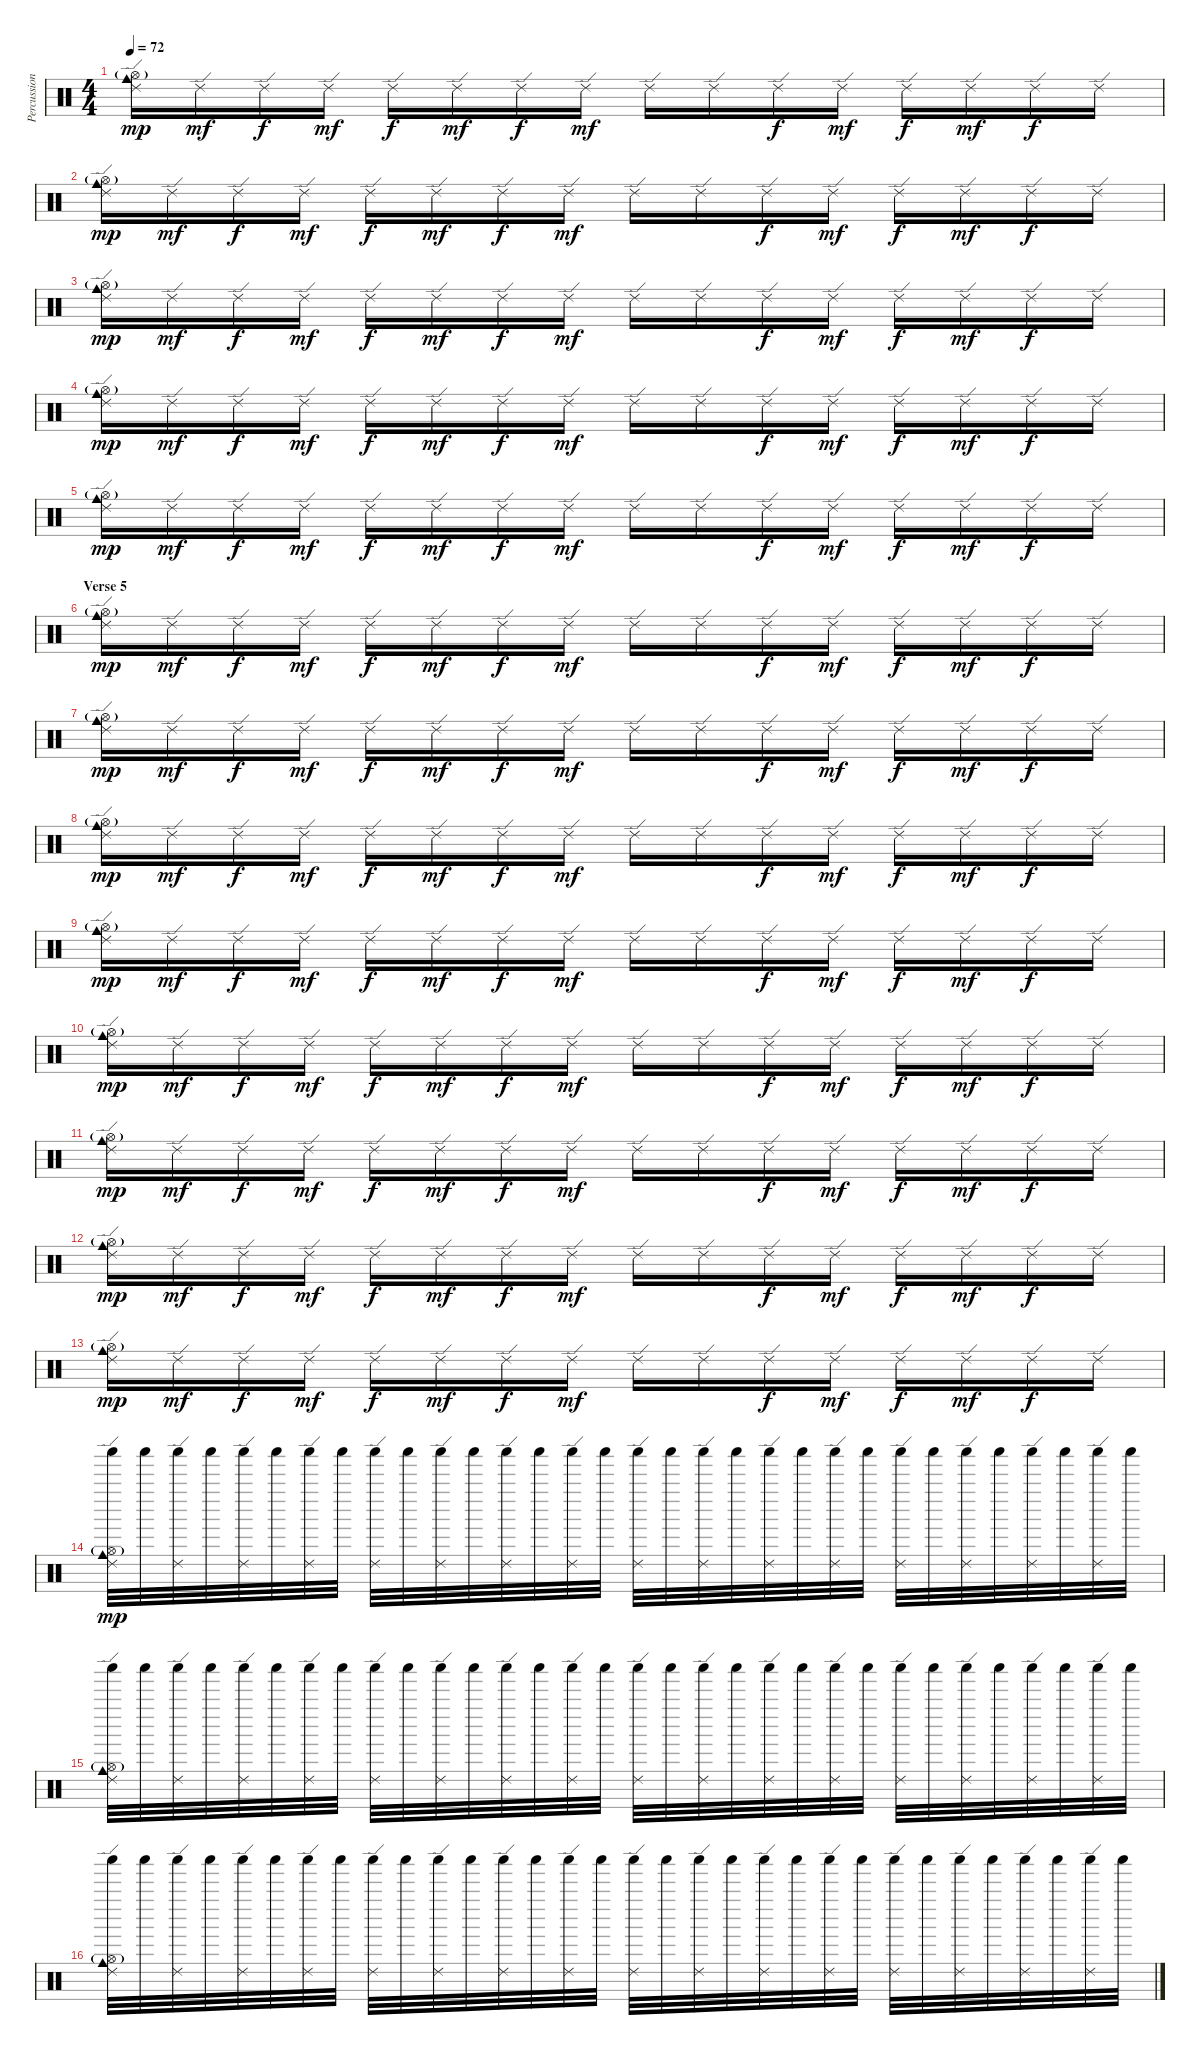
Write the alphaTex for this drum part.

\track ("Percussion" "Percussion") {instrument percussion}
\staff {score}
\articulation defaults
\ts (4 4)
\tempo 72
\clef neutral
\ks c
("Ride (edge) 2" "Hi-Hat (open)"{g} "Cowbell medium (hit)").16{dy mp} "Ride (edge) 2".16{dy mf} "Ride (edge) 2".16{dy f} "Ride (edge) 2".16{dy mf} "Ride (edge) 2".16{dy f} "Ride (edge) 2".16{dy mf} "Ride (edge) 2".16{dy f} "Ride (edge) 2".16{dy mf} "Ride (edge) 2".16 "Ride (edge) 2".16 "Ride (edge) 2".16{dy f} "Ride (edge) 2".16{dy mf} "Ride (edge) 2".16{dy f} "Ride (edge) 2".16{dy mf} "Ride (edge) 2".16{dy f} "Ride (edge) 2".16 |
("Ride (edge) 2" "Hi-Hat (open)"{g} "Cowbell medium (hit)").16{dy mp} "Ride (edge) 2".16{dy mf} "Ride (edge) 2".16{dy f} "Ride (edge) 2".16{dy mf} "Ride (edge) 2".16{dy f} "Ride (edge) 2".16{dy mf} "Ride (edge) 2".16{dy f} "Ride (edge) 2".16{dy mf} "Ride (edge) 2".16 "Ride (edge) 2".16 "Ride (edge) 2".16{dy f} "Ride (edge) 2".16{dy mf} "Ride (edge) 2".16{dy f} "Ride (edge) 2".16{dy mf} "Ride (edge) 2".16{dy f} "Ride (edge) 2".16 |
("Ride (edge) 2" "Hi-Hat (open)"{g} "Cowbell medium (hit)").16{dy mp} "Ride (edge) 2".16{dy mf} "Ride (edge) 2".16{dy f} "Ride (edge) 2".16{dy mf} "Ride (edge) 2".16{dy f} "Ride (edge) 2".16{dy mf} "Ride (edge) 2".16{dy f} "Ride (edge) 2".16{dy mf} "Ride (edge) 2".16 "Ride (edge) 2".16 "Ride (edge) 2".16{dy f} "Ride (edge) 2".16{dy mf} "Ride (edge) 2".16{dy f} "Ride (edge) 2".16{dy mf} "Ride (edge) 2".16{dy f} "Ride (edge) 2".16 |
("Ride (edge) 2" "Hi-Hat (open)"{g} "Cowbell medium (hit)").16{dy mp} "Ride (edge) 2".16{dy mf} "Ride (edge) 2".16{dy f} "Ride (edge) 2".16{dy mf} "Ride (edge) 2".16{dy f} "Ride (edge) 2".16{dy mf} "Ride (edge) 2".16{dy f} "Ride (edge) 2".16{dy mf} "Ride (edge) 2".16 "Ride (edge) 2".16 "Ride (edge) 2".16{dy f} "Ride (edge) 2".16{dy mf} "Ride (edge) 2".16{dy f} "Ride (edge) 2".16{dy mf} "Ride (edge) 2".16{dy f} "Ride (edge) 2".16 |
("Ride (edge) 2" "Hi-Hat (open)"{g} "Cowbell medium (hit)").16{dy mp} "Ride (edge) 2".16{dy mf} "Ride (edge) 2".16{dy f} "Ride (edge) 2".16{dy mf} "Ride (edge) 2".16{dy f} "Ride (edge) 2".16{dy mf} "Ride (edge) 2".16{dy f} "Ride (edge) 2".16{dy mf} "Ride (edge) 2".16 "Ride (edge) 2".16 "Ride (edge) 2".16{dy f} "Ride (edge) 2".16{dy mf} "Ride (edge) 2".16{dy f} "Ride (edge) 2".16{dy mf} "Ride (edge) 2".16{dy f} "Ride (edge) 2".16 |
\section ("" "Verse 5")
("Ride (edge) 2" "Hi-Hat (open)"{g} "Cowbell medium (hit)").16{dy mp} "Ride (edge) 2".16{dy mf} "Ride (edge) 2".16{dy f} "Ride (edge) 2".16{dy mf} "Ride (edge) 2".16{dy f} "Ride (edge) 2".16{dy mf} "Ride (edge) 2".16{dy f} "Ride (edge) 2".16{dy mf} "Ride (edge) 2".16 "Ride (edge) 2".16 "Ride (edge) 2".16{dy f} "Ride (edge) 2".16{dy mf} "Ride (edge) 2".16{dy f} "Ride (edge) 2".16{dy mf} "Ride (edge) 2".16{dy f} "Ride (edge) 2".16 |
("Ride (edge) 2" "Hi-Hat (open)"{g} "Cowbell medium (hit)").16{dy mp} "Ride (edge) 2".16{dy mf} "Ride (edge) 2".16{dy f} "Ride (edge) 2".16{dy mf} "Ride (edge) 2".16{dy f} "Ride (edge) 2".16{dy mf} "Ride (edge) 2".16{dy f} "Ride (edge) 2".16{dy mf} "Ride (edge) 2".16 "Ride (edge) 2".16 "Ride (edge) 2".16{dy f} "Ride (edge) 2".16{dy mf} "Ride (edge) 2".16{dy f} "Ride (edge) 2".16{dy mf} "Ride (edge) 2".16{dy f} "Ride (edge) 2".16 |
("Ride (edge) 2" "Hi-Hat (open)"{g} "Cowbell medium (hit)").16{dy mp} "Ride (edge) 2".16{dy mf} "Ride (edge) 2".16{dy f} "Ride (edge) 2".16{dy mf} "Ride (edge) 2".16{dy f} "Ride (edge) 2".16{dy mf} "Ride (edge) 2".16{dy f} "Ride (edge) 2".16{dy mf} "Ride (edge) 2".16 "Ride (edge) 2".16 "Ride (edge) 2".16{dy f} "Ride (edge) 2".16{dy mf} "Ride (edge) 2".16{dy f} "Ride (edge) 2".16{dy mf} "Ride (edge) 2".16{dy f} "Ride (edge) 2".16 |
("Ride (edge) 2" "Hi-Hat (open)"{g} "Cowbell medium (hit)").16{dy mp} "Ride (edge) 2".16{dy mf} "Ride (edge) 2".16{dy f} "Ride (edge) 2".16{dy mf} "Ride (edge) 2".16{dy f} "Ride (edge) 2".16{dy mf} "Ride (edge) 2".16{dy f} "Ride (edge) 2".16{dy mf} "Ride (edge) 2".16 "Ride (edge) 2".16 "Ride (edge) 2".16{dy f} "Ride (edge) 2".16{dy mf} "Ride (edge) 2".16{dy f} "Ride (edge) 2".16{dy mf} "Ride (edge) 2".16{dy f} "Ride (edge) 2".16 |
("Ride (edge) 2" "Hi-Hat (open)"{g} "Cowbell medium (hit)").16{dy mp} "Ride (edge) 2".16{dy mf} "Ride (edge) 2".16{dy f} "Ride (edge) 2".16{dy mf} "Ride (edge) 2".16{dy f} "Ride (edge) 2".16{dy mf} "Ride (edge) 2".16{dy f} "Ride (edge) 2".16{dy mf} "Ride (edge) 2".16 "Ride (edge) 2".16 "Ride (edge) 2".16{dy f} "Ride (edge) 2".16{dy mf} "Ride (edge) 2".16{dy f} "Ride (edge) 2".16{dy mf} "Ride (edge) 2".16{dy f} "Ride (edge) 2".16 |
("Ride (edge) 2" "Hi-Hat (open)"{g} "Cowbell medium (hit)").16{dy mp} "Ride (edge) 2".16{dy mf} "Ride (edge) 2".16{dy f} "Ride (edge) 2".16{dy mf} "Ride (edge) 2".16{dy f} "Ride (edge) 2".16{dy mf} "Ride (edge) 2".16{dy f} "Ride (edge) 2".16{dy mf} "Ride (edge) 2".16 "Ride (edge) 2".16 "Ride (edge) 2".16{dy f} "Ride (edge) 2".16{dy mf} "Ride (edge) 2".16{dy f} "Ride (edge) 2".16{dy mf} "Ride (edge) 2".16{dy f} "Ride (edge) 2".16 |
("Ride (edge) 2" "Hi-Hat (open)"{g} "Cowbell medium (hit)").16{dy mp} "Ride (edge) 2".16{dy mf} "Ride (edge) 2".16{dy f} "Ride (edge) 2".16{dy mf} "Ride (edge) 2".16{dy f} "Ride (edge) 2".16{dy mf} "Ride (edge) 2".16{dy f} "Ride (edge) 2".16{dy mf} "Ride (edge) 2".16 "Ride (edge) 2".16 "Ride (edge) 2".16{dy f} "Ride (edge) 2".16{dy mf} "Ride (edge) 2".16{dy f} "Ride (edge) 2".16{dy mf} "Ride (edge) 2".16{dy f} "Ride (edge) 2".16 |
("Ride (edge) 2" "Hi-Hat (open)"{g} "Cowbell medium (hit)").16{dy mp} "Ride (edge) 2".16{dy mf} "Ride (edge) 2".16{dy f} "Ride (edge) 2".16{dy mf} "Ride (edge) 2".16{dy f} "Ride (edge) 2".16{dy mf} "Ride (edge) 2".16{dy f} "Ride (edge) 2".16{dy mf} "Ride (edge) 2".16 "Ride (edge) 2".16 "Ride (edge) 2".16{dy f} "Ride (edge) 2".16{dy mf} "Ride (edge) 2".16{dy f} "Ride (edge) 2".16{dy mf} "Ride (edge) 2".16{dy f} "Ride (edge) 2".16 |
("Ride (edge) 2" "Hi-Hat (open)"{g} "Cowbell medium (hit)" "Shaker (hit)").32{dy mp} "Shaker (hit)".32 ("Ride (edge) 2" "Shaker (hit)").32 "Shaker (hit)".32 ("Ride (edge) 2" "Shaker (hit)").32 "Shaker (hit)".32 ("Ride (edge) 2" "Shaker (hit)").32 "Shaker (hit)".32 ("Ride (edge) 2" "Shaker (hit)").32 "Shaker (hit)".32 ("Ride (edge) 2" "Shaker (hit)").32 "Shaker (hit)".32 ("Ride (edge) 2" "Shaker (hit)").32 "Shaker (hit)".32 ("Ride (edge) 2" "Shaker (hit)").32 "Shaker (hit)".32 ("Ride (edge) 2" "Shaker (hit)").32 "Shaker (hit)".32 ("Ride (edge) 2" "Shaker (hit)").32 "Shaker (hit)".32 ("Ride (edge) 2" "Shaker (hit)").32 "Shaker (hit)".32 ("Ride (edge) 2" "Shaker (hit)").32 "Shaker (hit)".32 ("Ride (edge) 2" "Shaker (hit)").32 "Shaker (hit)".32 ("Ride (edge) 2" "Shaker (hit)").32 "Shaker (hit)".32 ("Ride (edge) 2" "Shaker (hit)").32 "Shaker (hit)".32 ("Ride (edge) 2" "Shaker (hit)").32 "Shaker (hit)".32 |
("Ride (edge) 2" "Hi-Hat (open)"{g} "Cowbell medium (hit)" "Shaker (hit)").32 "Shaker (hit)".32 ("Ride (edge) 2" "Shaker (hit)").32 "Shaker (hit)".32 ("Ride (edge) 2" "Shaker (hit)").32 "Shaker (hit)".32 ("Ride (edge) 2" "Shaker (hit)").32 "Shaker (hit)".32 ("Ride (edge) 2" "Shaker (hit)").32 "Shaker (hit)".32 ("Ride (edge) 2" "Shaker (hit)").32 "Shaker (hit)".32 ("Ride (edge) 2" "Shaker (hit)").32 "Shaker (hit)".32 ("Ride (edge) 2" "Shaker (hit)").32 "Shaker (hit)".32 ("Ride (edge) 2" "Shaker (hit)").32 "Shaker (hit)".32 ("Ride (edge) 2" "Shaker (hit)").32 "Shaker (hit)".32 ("Ride (edge) 2" "Shaker (hit)").32 "Shaker (hit)".32 ("Ride (edge) 2" "Shaker (hit)").32 "Shaker (hit)".32 ("Ride (edge) 2" "Shaker (hit)").32 "Shaker (hit)".32 ("Ride (edge) 2" "Shaker (hit)").32 "Shaker (hit)".32 ("Ride (edge) 2" "Shaker (hit)").32 "Shaker (hit)".32 ("Ride (edge) 2" "Shaker (hit)").32 "Shaker (hit)".32 |
("Ride (edge) 2" "Hi-Hat (open)"{g} "Cowbell medium (hit)" "Shaker (hit)").32 "Shaker (hit)".32 ("Ride (edge) 2" "Shaker (hit)").32 "Shaker (hit)".32 ("Ride (edge) 2" "Shaker (hit)").32 "Shaker (hit)".32 ("Ride (edge) 2" "Shaker (hit)").32 "Shaker (hit)".32 ("Ride (edge) 2" "Shaker (hit)").32 "Shaker (hit)".32 ("Ride (edge) 2" "Shaker (hit)").32 "Shaker (hit)".32 ("Ride (edge) 2" "Shaker (hit)").32 "Shaker (hit)".32 ("Ride (edge) 2" "Shaker (hit)").32 "Shaker (hit)".32 ("Ride (edge) 2" "Shaker (hit)").32 "Shaker (hit)".32 ("Ride (edge) 2" "Shaker (hit)").32 "Shaker (hit)".32 ("Ride (edge) 2" "Shaker (hit)").32 "Shaker (hit)".32 ("Ride (edge) 2" "Shaker (hit)").32 "Shaker (hit)".32 ("Ride (edge) 2" "Shaker (hit)").32 "Shaker (hit)".32 ("Ride (edge) 2" "Shaker (hit)").32 "Shaker (hit)".32 ("Ride (edge) 2" "Shaker (hit)").32 "Shaker (hit)".32 ("Ride (edge) 2" "Shaker (hit)").32 "Shaker (hit)".32
